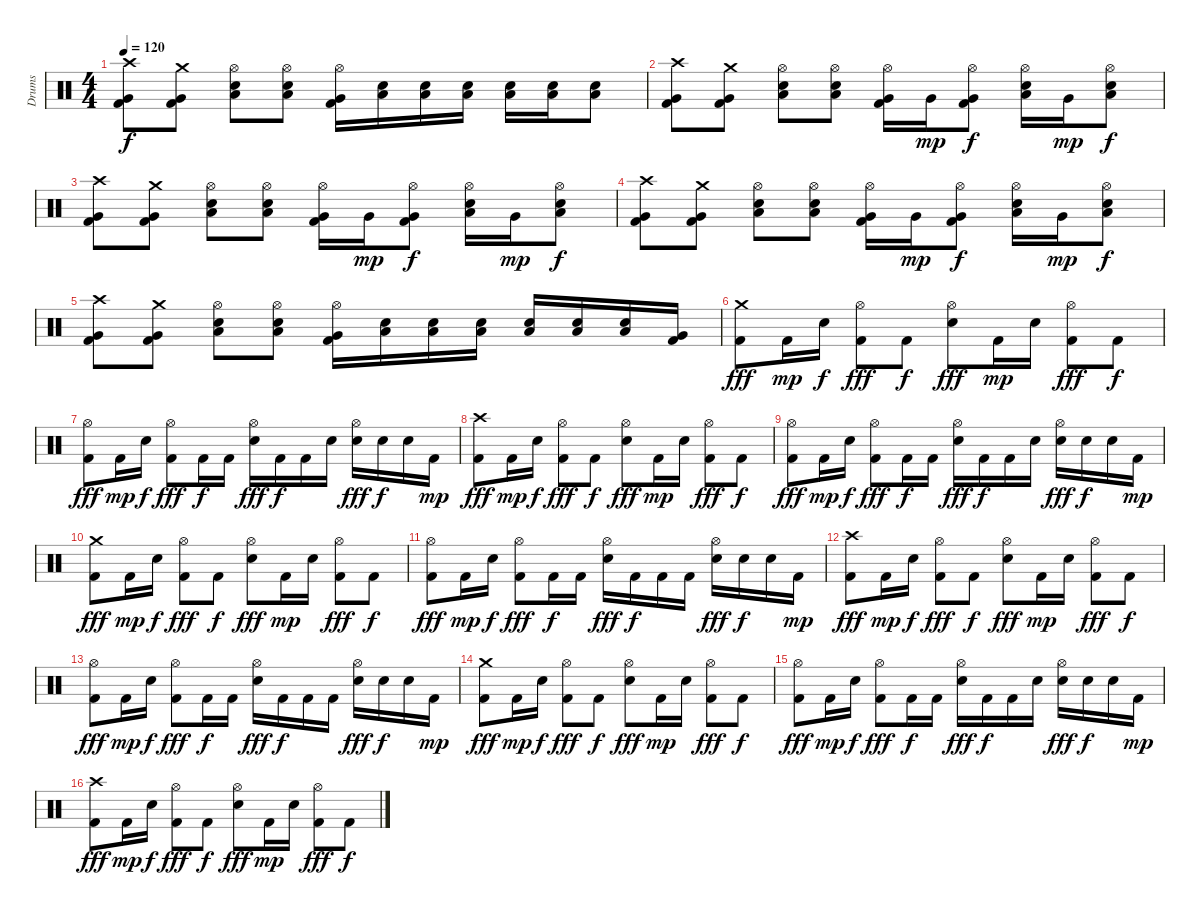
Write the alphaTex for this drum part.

\track ("Drums" "Drums") {instrument percussion}
\staff {score}
\articulation defaults
\ts (4 4)
\tempo 120
\clef neutral
\ks c
("Kick (hit) 2" "Very Low Tom (hit)" "Crash high (hit)").8{dy f} ("Kick (hit) 2" "Very Low Tom (hit)" "Crash medium (hit)").8 ("Snare (hit) 2" "Low Floor Tom (hit)" "Hi-Hat (open)").8 ("Snare (hit) 2" "Low Floor Tom (hit)" "Hi-Hat (open)").8 ("Kick (hit) 2" "Very Low Tom (hit)" "Hi-Hat (open)").16 ("Electric Snare (hit)" "Low Floor Tom (hit)").16 ("Electric Snare (hit)" "Low Floor Tom (hit)").16 ("Electric Snare (hit)" "Low Floor Tom (hit)").16 ("Electric Snare (hit)" "Low Floor Tom (hit)").16 ("Electric Snare (hit)" "Low Floor Tom (hit)").16 ("Electric Snare (hit)" "Low Floor Tom (hit)").8 |
("Kick (hit) 2" "Very Low Tom (hit)" "Crash high (hit)").8 ("Kick (hit) 2" "Very Low Tom (hit)" "Crash medium (hit)").8 ("Snare (hit) 2" "Low Floor Tom (hit)" "Hi-Hat (open)").8 ("Snare (hit) 2" "Low Floor Tom (hit)" "Hi-Hat (open)").8 ("Kick (hit) 2" "Very Low Tom (hit)" "Hi-Hat (open)").16 "Very Low Tom (hit)".16{dy mp} ("Kick (hit) 2" "Very Low Tom (hit)" "Hi-Hat (open)").8{dy f} ("Snare (hit) 2" "Low Floor Tom (hit)" "Hi-Hat (open)").16 "Very Low Tom (hit)".16{dy mp} ("Snare (hit) 2" "Low Floor Tom (hit)" "Hi-Hat (open)").8{dy f} |
("Kick (hit) 2" "Very Low Tom (hit)" "Crash high (hit)").8 ("Kick (hit) 2" "Very Low Tom (hit)" "Crash medium (hit)").8 ("Snare (hit) 2" "Low Floor Tom (hit)" "Hi-Hat (open)").8 ("Snare (hit) 2" "Low Floor Tom (hit)" "Hi-Hat (open)").8 ("Kick (hit) 2" "Very Low Tom (hit)" "Hi-Hat (open)").16 "Very Low Tom (hit)".16{dy mp} ("Kick (hit) 2" "Very Low Tom (hit)" "Hi-Hat (open)").8{dy f} ("Snare (hit) 2" "Low Floor Tom (hit)" "Hi-Hat (open)").16 "Very Low Tom (hit)".16{dy mp} ("Snare (hit) 2" "Low Floor Tom (hit)" "Hi-Hat (open)").8{dy f} |
("Kick (hit) 2" "Very Low Tom (hit)" "Crash high (hit)").8 ("Kick (hit) 2" "Very Low Tom (hit)" "Crash medium (hit)").8 ("Snare (hit) 2" "Low Floor Tom (hit)" "Hi-Hat (open)").8 ("Snare (hit) 2" "Low Floor Tom (hit)" "Hi-Hat (open)").8 ("Kick (hit) 2" "Very Low Tom (hit)" "Hi-Hat (open)").16 "Very Low Tom (hit)".16{dy mp} ("Kick (hit) 2" "Very Low Tom (hit)" "Hi-Hat (open)").8{dy f} ("Snare (hit) 2" "Low Floor Tom (hit)" "Hi-Hat (open)").16 "Very Low Tom (hit)".16{dy mp} ("Snare (hit) 2" "Low Floor Tom (hit)" "Hi-Hat (open)").8{dy f} |
("Kick (hit) 2" "Very Low Tom (hit)" "Crash high (hit)").8 ("Kick (hit) 2" "Very Low Tom (hit)" "Crash medium (hit)").8 ("Snare (hit) 2" "Low Floor Tom (hit)" "Hi-Hat (open)").8 ("Snare (hit) 2" "Low Floor Tom (hit)" "Hi-Hat (open)").8 ("Kick (hit) 2" "Very Low Tom (hit)" "Hi-Hat (open)").16 ("Electric Snare (hit)" "Low Floor Tom (hit)").16 ("Electric Snare (hit)" "Low Floor Tom (hit)").16 ("Electric Snare (hit)" "Low Floor Tom (hit)").16 ("Electric Snare (hit)" "Low Floor Tom (hit)").16 ("Electric Snare (hit)" "Low Floor Tom (hit)").16 ("Electric Snare (hit)" "Low Floor Tom (hit)").16 ("Kick (hit) 2" "Very Low Tom (hit)").16 |
("Kick (hit) 2" "Crash medium (hit)").8{dy fff} "Kick (hit) 2".16{dy mp} "Snare (hit) 2".16{dy f} ("Kick (hit) 2" "Hi-Hat (open)").8{dy fff} "Kick (hit) 2".8{dy f} ("Electric Snare (hit)" "Hi-Hat (open)").8{dy fff} "Kick (hit) 2".16{dy mp} "Snare (hit) 2".16 ("Kick (hit) 2" "Hi-Hat (open)").8{dy fff} "Kick (hit) 2".8{dy f} |
("Kick (hit) 2" "Hi-Hat (open)").8{dy fff} "Kick (hit) 2".16{dy mp} "Snare (hit) 2".16{dy f} ("Kick (hit) 2" "Hi-Hat (open)").8{dy fff} "Kick (hit) 2".16{dy f} "Kick (hit) 2".16 ("Electric Snare (hit)" "Hi-Hat (open)").16{dy fff} "Kick (hit) 2".16{dy f} "Kick (hit) 2".16 "Snare (hit) 2".16 ("Snare (hit) 2" "Hi-Hat (open)").16{dy fff} "Snare (hit) 2".16{dy f} "Snare (hit) 2".16 "Kick (hit) 2".16{dy mp} |
("Kick (hit) 2" "Crash high (hit)").8{dy fff} "Kick (hit) 2".16{dy mp} "Snare (hit) 2".16{dy f} ("Kick (hit) 2" "Hi-Hat (open)").8{dy fff} "Kick (hit) 2".8{dy f} ("Electric Snare (hit)" "Hi-Hat (open)").8{dy fff} "Kick (hit) 2".16{dy mp} "Snare (hit) 2".16 ("Kick (hit) 2" "Hi-Hat (open)").8{dy fff} "Kick (hit) 2".8{dy f} |
("Kick (hit) 2" "Hi-Hat (open)").8{dy fff} "Kick (hit) 2".16{dy mp} "Snare (hit) 2".16{dy f} ("Kick (hit) 2" "Hi-Hat (open)").8{dy fff} "Kick (hit) 2".16{dy f} "Kick (hit) 2".16 ("Electric Snare (hit)" "Hi-Hat (open)").16{dy fff} "Kick (hit) 2".16{dy f} "Kick (hit) 2".16 "Snare (hit) 2".16 ("Snare (hit) 2" "Hi-Hat (open)").16{dy fff} "Snare (hit) 2".16{dy f} "Snare (hit) 2".16 "Kick (hit) 2".16{dy mp} |
("Kick (hit) 2" "Crash medium (hit)").8{dy fff} "Kick (hit) 2".16{dy mp} "Snare (hit) 2".16{dy f} ("Kick (hit) 2" "Hi-Hat (open)").8{dy fff} "Kick (hit) 2".8{dy f} ("Electric Snare (hit)" "Hi-Hat (open)").8{dy fff} "Kick (hit) 2".16{dy mp} "Snare (hit) 2".16 ("Kick (hit) 2" "Hi-Hat (open)").8{dy fff} "Kick (hit) 2".8{dy f} |
("Kick (hit) 2" "Hi-Hat (open)").8{dy fff} "Kick (hit) 2".16{dy mp} "Snare (hit) 2".16{dy f} ("Kick (hit) 2" "Hi-Hat (open)").8{dy fff} "Kick (hit) 2".16{dy f} "Kick (hit) 2".16 ("Electric Snare (hit)" "Hi-Hat (open)").16{dy fff} "Kick (hit) 2".16{dy f} "Kick (hit) 2".16 "Kick (hit) 2".16 ("Snare (hit) 2" "Hi-Hat (open)").16{dy fff} "Snare (hit) 2".16{dy f} "Snare (hit) 2".16 "Kick (hit) 2".16{dy mp} |
("Kick (hit) 2" "Crash high (hit)").8{dy fff} "Kick (hit) 2".16{dy mp} "Snare (hit) 2".16{dy f} ("Kick (hit) 2" "Hi-Hat (open)").8{dy fff} "Kick (hit) 2".8{dy f} ("Electric Snare (hit)" "Hi-Hat (open)").8{dy fff} "Kick (hit) 2".16{dy mp} "Snare (hit) 2".16 ("Kick (hit) 2" "Hi-Hat (open)").8{dy fff} "Kick (hit) 2".8{dy f} |
("Kick (hit) 2" "Hi-Hat (open)").8{dy fff} "Kick (hit) 2".16{dy mp} "Snare (hit) 2".16{dy f} ("Kick (hit) 2" "Hi-Hat (open)").8{dy fff} "Kick (hit) 2".16{dy f} "Kick (hit) 2".16 ("Electric Snare (hit)" "Hi-Hat (open)").16{dy fff} "Kick (hit) 2".16{dy f} "Kick (hit) 2".16 "Kick (hit) 2".16 ("Snare (hit) 2" "Hi-Hat (open)").16{dy fff} "Snare (hit) 2".16{dy f} "Snare (hit) 2".16 "Kick (hit) 2".16{dy mp} |
("Kick (hit) 2" "Crash medium (hit)").8{dy fff} "Kick (hit) 2".16{dy mp} "Snare (hit) 2".16{dy f} ("Kick (hit) 2" "Hi-Hat (open)").8{dy fff} "Kick (hit) 2".8{dy f} ("Electric Snare (hit)" "Hi-Hat (open)").8{dy fff} "Kick (hit) 2".16{dy mp} "Snare (hit) 2".16 ("Kick (hit) 2" "Hi-Hat (open)").8{dy fff} "Kick (hit) 2".8{dy f} |
("Kick (hit) 2" "Hi-Hat (open)").8{dy fff} "Kick (hit) 2".16{dy mp} "Snare (hit) 2".16{dy f} ("Kick (hit) 2" "Hi-Hat (open)").8{dy fff} "Kick (hit) 2".16{dy f} "Kick (hit) 2".16 ("Electric Snare (hit)" "Hi-Hat (open)").16{dy fff} "Kick (hit) 2".16{dy f} "Kick (hit) 2".16 "Snare (hit) 2".16 ("Snare (hit) 2" "Hi-Hat (open)").16{dy fff} "Snare (hit) 2".16{dy f} "Snare (hit) 2".16 "Kick (hit) 2".16{dy mp} |
("Kick (hit) 2" "Crash high (hit)").8{dy fff} "Kick (hit) 2".16{dy mp} "Snare (hit) 2".16{dy f} ("Kick (hit) 2" "Hi-Hat (open)").8{dy fff} "Kick (hit) 2".8{dy f} ("Electric Snare (hit)" "Hi-Hat (open)").8{dy fff} "Kick (hit) 2".16{dy mp} "Snare (hit) 2".16 ("Kick (hit) 2" "Hi-Hat (open)").8{dy fff} "Kick (hit) 2".8{dy f}
